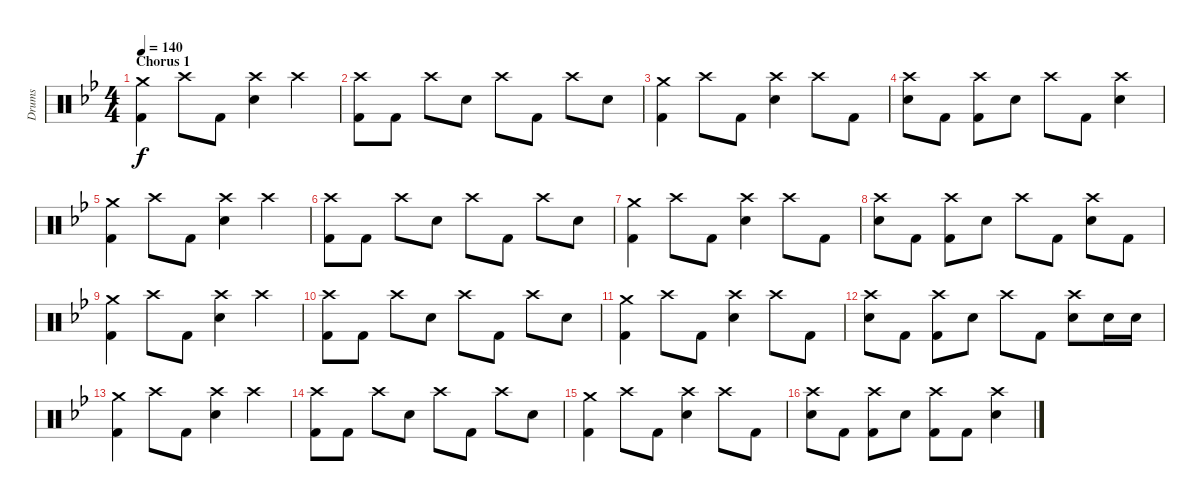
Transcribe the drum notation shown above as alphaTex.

\track ("Drums" "Drums") {instrument percussion}
\staff {score}
\articulation defaults
\ts (4 4)
\section ("" "Chorus 1")
\tempo 140
\clef neutral
\ks gminor
("Crash medium (hit)" "Kick (hit) 2").4{dy f} "Crash high (hit)".8 "Kick (hit) 2".8 ("Crash high (hit)" "Electric Snare (hit)").4 "Crash high (hit)".4 |
("Crash high (hit)" "Kick (hit) 2").8 "Kick (hit) 2".8 "Crash high (hit)".8 "Electric Snare (hit)".8 "Crash high (hit)".8 "Kick (hit) 2".8 "Crash high (hit)".8 "Electric Snare (hit)".8 |
("Crash medium (hit)" "Kick (hit) 2").4 "Crash high (hit)".8 "Kick (hit) 2".8 ("Crash high (hit)" "Electric Snare (hit)").4 "Crash high (hit)".8 "Kick (hit) 2".8 |
("Crash high (hit)" "Electric Snare (hit)").8 "Kick (hit) 2".8 ("Crash high (hit)" "Kick (hit) 2").8 "Electric Snare (hit)".8 "Crash high (hit)".8 "Kick (hit) 2".8 ("Crash high (hit)" "Electric Snare (hit)").4 |
("Crash medium (hit)" "Kick (hit) 2").4 "Crash high (hit)".8 "Kick (hit) 2".8 ("Crash high (hit)" "Electric Snare (hit)").4 "Crash high (hit)".4 |
("Crash high (hit)" "Kick (hit) 2").8 "Kick (hit) 2".8 "Crash high (hit)".8 "Electric Snare (hit)".8 "Crash high (hit)".8 "Kick (hit) 2".8 "Crash high (hit)".8 "Electric Snare (hit)".8 |
("Crash medium (hit)" "Kick (hit) 2").4 "Crash high (hit)".8 "Kick (hit) 2".8 ("Crash high (hit)" "Electric Snare (hit)").4 "Crash high (hit)".8 "Kick (hit) 2".8 |
("Crash high (hit)" "Electric Snare (hit)").8 "Kick (hit) 2".8 ("Crash high (hit)" "Kick (hit) 2").8 "Electric Snare (hit)".8 "Crash high (hit)".8 "Kick (hit) 2".8 ("Crash high (hit)" "Electric Snare (hit)").8 "Kick (hit) 2".8 |
("Crash medium (hit)" "Kick (hit) 2").4 "Crash high (hit)".8 "Kick (hit) 2".8 ("Crash high (hit)" "Electric Snare (hit)").4 "Crash high (hit)".4 |
("Crash high (hit)" "Kick (hit) 2").8 "Kick (hit) 2".8 "Crash high (hit)".8 "Electric Snare (hit)".8 "Crash high (hit)".8 "Kick (hit) 2".8 "Crash high (hit)".8 "Electric Snare (hit)".8 |
("Crash medium (hit)" "Kick (hit) 2").4 "Crash high (hit)".8 "Kick (hit) 2".8 ("Crash high (hit)" "Electric Snare (hit)").4 "Crash high (hit)".8 "Kick (hit) 2".8 |
("Crash high (hit)" "Electric Snare (hit)").8 "Kick (hit) 2".8 ("Crash high (hit)" "Kick (hit) 2").8 "Electric Snare (hit)".8 "Crash high (hit)".8 "Kick (hit) 2".8 ("Crash high (hit)" "Electric Snare (hit)").8 "Electric Snare (hit)".16 "Electric Snare (hit)".16 |
("Crash medium (hit)" "Kick (hit) 2").4 "Crash high (hit)".8 "Kick (hit) 2".8 ("Crash high (hit)" "Electric Snare (hit)").4 "Crash high (hit)".4 |
("Crash high (hit)" "Kick (hit) 2").8 "Kick (hit) 2".8 "Crash high (hit)".8 "Electric Snare (hit)".8 "Crash high (hit)".8 "Kick (hit) 2".8 "Crash high (hit)".8 "Electric Snare (hit)".8 |
("Crash medium (hit)" "Kick (hit) 2").4 "Crash high (hit)".8 "Kick (hit) 2".8 ("Crash high (hit)" "Electric Snare (hit)").4 "Crash high (hit)".8 "Kick (hit) 2".8 |
("Crash high (hit)" "Electric Snare (hit)").8 "Kick (hit) 2".8 ("Crash high (hit)" "Kick (hit) 2").8 "Electric Snare (hit)".8 ("Crash high (hit)" "Kick (hit) 2").8 "Kick (hit) 2".8 ("Crash high (hit)" "Electric Snare (hit)").4
